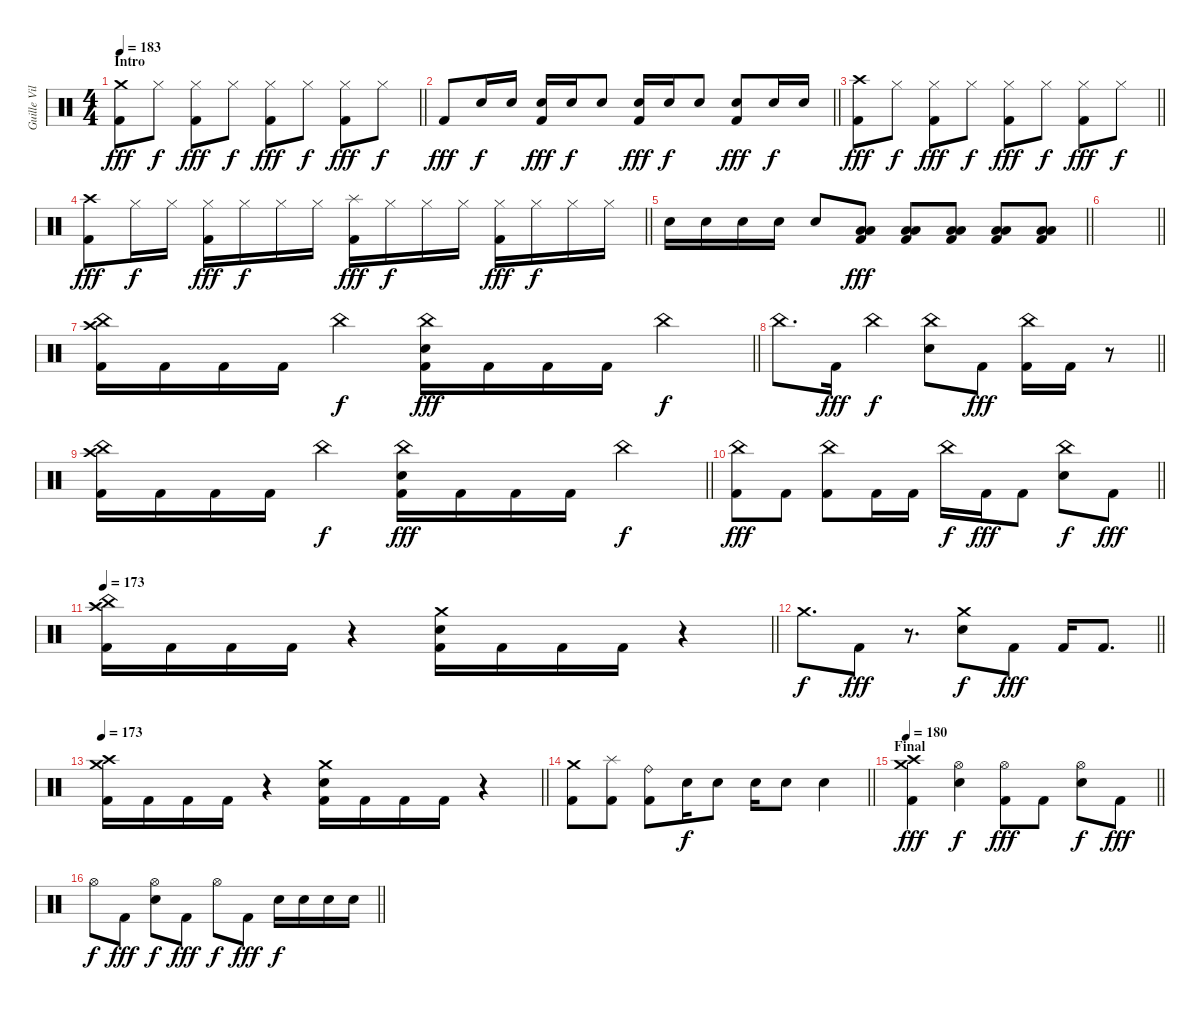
\track ("Guille Vila" "Guille Vil") {instrument percussion}
\staff {score}
\articulation defaults
\ts (4 4)
\section ("" "Intro")
\tempo 183
\clef neutral
\barLineRight lightlight
\ks c
("Crash medium (hit)" "Kick (hit) 2").8{dy fff} "Hi-Hat (closed)".8{dy f} ("Hi-Hat (closed)" "Kick (hit) 2").8{dy fff} "Hi-Hat (closed)".8{dy f} ("Hi-Hat (closed)" "Kick (hit) 2").8{dy fff} "Hi-Hat (closed)".8{dy f} ("Hi-Hat (closed)" "Kick (hit) 2").8{dy fff} "Hi-Hat (closed)".8{dy f} |
\barLineRight lightlight "Kick (hit) 2".8{dy fff} "Snare (hit) 2".16{dy f} "Snare (hit) 2".16
("Snare (hit) 2" "Kick (hit) 2").16{dy fff} "Snare (hit) 2".16{dy f} "Snare (hit) 2".8 ("Snare (hit) 2" "Kick (hit) 2").16{dy fff} "Snare (hit) 2".16{dy f} "Snare (hit) 2".8 ("Snare (hit) 2" "Kick (hit) 2").8{dy fff} "Snare (hit) 2".16{dy f} "Snare (hit) 2".16 |
\barLineRight lightlight
("Crash high (hit)" "Kick (hit) 2").8{dy fff} "Hi-Hat (closed)".8{dy f} ("Hi-Hat (closed)" "Kick (hit) 2").8{dy fff} "Hi-Hat (closed)".8{dy f} ("Hi-Hat (closed)" "Kick (hit) 2").8{dy fff} "Hi-Hat (closed)".8{dy f} ("Hi-Hat (closed)" "Kick (hit) 2").8{dy fff} "Hi-Hat (closed)".8{dy f} |
\barLineRight lightlight
("Crash high (hit)" "Kick (hit) 2").8{dy fff} "Hi-Hat (closed)".16{dy f} "Hi-Hat (closed)".16 ("Hi-Hat (closed)" "Kick (hit) 2").16{dy fff} "Hi-Hat (closed)".16{dy f} "Hi-Hat (closed)".16 "Hi-Hat (closed)".16 ("Splash (hit)" "Kick (hit) 2").16{dy fff} "Hi-Hat (closed)".16{dy f} "Hi-Hat (closed)".16 "Hi-Hat (closed)".16 ("Hi-Hat (closed)" "Kick (hit) 2").16{dy fff} "Hi-Hat (closed)".16{dy f} "Hi-Hat (closed)".16 "Hi-Hat (closed)".16 |
\barLineRight lightlight "Snare (hit) 2".16 "Snare (hit) 2".16 "Snare (hit) 2".16 "Snare (hit) 2".16 "Snare (hit) 2".8
("Low Floor Tom (hit)" "Low Tom (hit)" "Kick (hit) 2").8{dy fff} ("Low Floor Tom (hit)" "Low Tom (hit)" "Kick (hit) 2").8 ("Low Floor Tom (hit)" "Low Tom (hit)" "Kick (hit) 2").8 ("Low Floor Tom (hit)" "Low Tom (hit)" "Kick (hit) 2").8 ("Low Floor Tom (hit)" "Low Tom (hit)" "Kick (hit) 2").8 |
\barLineRight lightlight
|
\barLineRight lightlight
("China (hit)" "Crash high (hit)" "Kick (hit) 2").16 "Kick (hit) 2".16 "Kick (hit) 2".16 "Kick (hit) 2".16 "China (hit)".4{dy f} ("China (hit)" "Snare (hit) 2" "Kick (hit) 2").16{dy fff} "Kick (hit) 2".16 "Kick (hit) 2".16 "Kick (hit) 2".16 "China (hit)".4{dy f} |
\barLineRight lightlight "China (hit)".8{d} "Kick (hit) 2".16{dy fff} "China (hit)".4{dy f}
("China (hit)" "Snare (hit) 2").8 "Kick (hit) 2".8{dy fff} ("China (hit)" "Kick (hit) 2").16 "Kick (hit) 2".16 r.8 |
\barLineRight lightlight
("China (hit)" "Crash high (hit)" "Kick (hit) 2").16 "Kick (hit) 2".16 "Kick (hit) 2".16 "Kick (hit) 2".16 "China (hit)".4{dy f} ("China (hit)" "Snare (hit) 2" "Kick (hit) 2").16{dy fff} "Kick (hit) 2".16 "Kick (hit) 2".16 "Kick (hit) 2".16 "China (hit)".4{dy f} |
\barLineRight lightlight
("China (hit)" "Kick (hit) 2").8{dy fff} "Kick (hit) 2".8 ("China (hit)" "Kick (hit) 2").8 "Kick (hit) 2".16 "Kick (hit) 2".16 "China (hit)".16{dy f} "Kick (hit) 2".16{dy fff} "Kick (hit) 2".8 ("China (hit)" "Snare (hit) 2").8{dy f} "Kick (hit) 2".8{dy fff} |
\tempo 173
\barLineRight lightlight
("China (hit)" "Crash high (hit)" "Kick (hit) 2").16 "Kick (hit) 2".16 "Kick (hit) 2".16 "Kick (hit) 2".16 r.4 ("Crash medium (hit)" "Snare (hit) 2" "Kick (hit) 2").16 "Kick (hit) 2".16 "Kick (hit) 2".16 "Kick (hit) 2".16 r.4 |
\barLineRight lightlight "Crash medium (hit)".8{d dy f} "Kick (hit) 2".8{dy fff}
r.8{d} ("Crash medium (hit)" "Snare (hit) 2").8{dy f} "Kick (hit) 2".8{dy fff} "Kick (hit) 2".16 "Kick (hit) 2".8{d} |
\tempo 173
\barLineRight lightlight
("Crash medium (hit)" "Crash high (hit)" "Kick (hit) 2").16 "Kick (hit) 2".16 "Kick (hit) 2".16 "Kick (hit) 2".16 r.4 ("Crash medium (hit)" "Snare (hit) 2" "Kick (hit) 2").16 "Kick (hit) 2".16 "Kick (hit) 2".16 "Kick (hit) 2".16 r.4 |
\barLineRight lightlight
("Crash medium (hit)" "Kick (hit) 2").8 ("Splash (hit)" "Kick (hit) 2").8 ("Ride (bell)" "Kick (hit) 2").8 "Snare (hit) 2".16{dy f} "Snare (hit) 2".8 "Snare (hit) 2".16 "Snare (hit) 2".8 "Snare (hit) 2".4 |
\section ("" "Final")
\tempo 180
\barLineRight lightlight
("Crash high (hit)" "Crash medium (hit)" "Kick (hit) 2").4{dy fff} ("Hi-Hat (open)" "Snare (hit) 2").4{dy f} ("Hi-Hat (open)" "Kick (hit) 2").8{dy fff} "Kick (hit) 2".8 ("Hi-Hat (open)" "Snare (hit) 2").8{dy f} "Kick (hit) 2".8{dy fff} |
\barLineRight lightlight "Hi-Hat (open)".8{dy f} "Kick (hit) 2".8{dy fff}
("Hi-Hat (open)" "Snare (hit) 2").8{dy f} "Kick (hit) 2".8{dy fff} "Hi-Hat (open)".8{dy f} "Kick (hit) 2".8{dy fff} "Snare (hit) 2".16{dy f} "Snare (hit) 2".16 "Snare (hit) 2".16 "Snare (hit) 2".16
